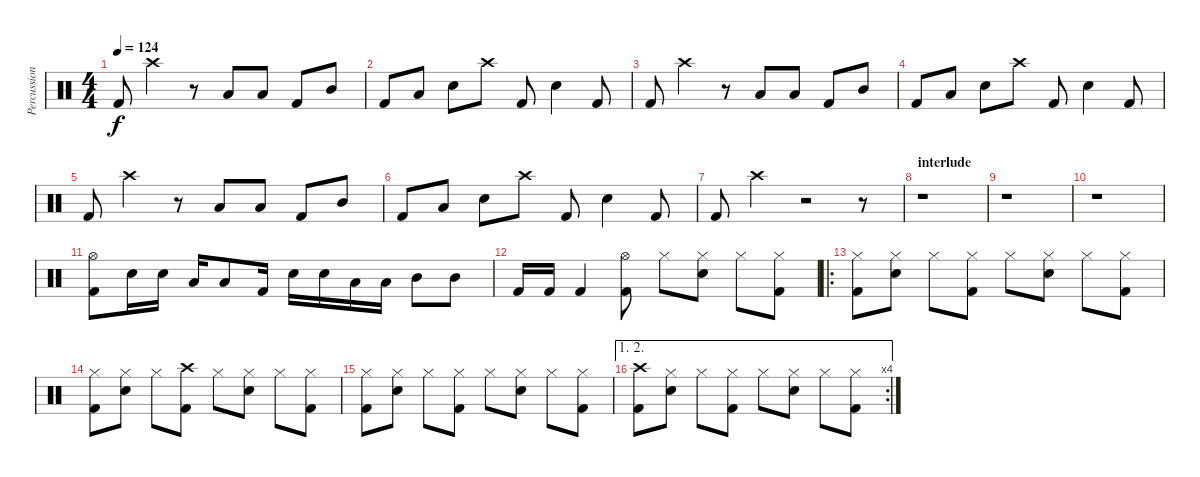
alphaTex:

\track ("Percussion" "Percussion") {instrument percussion}
\staff {score}
\articulation defaults
\ts (4 4)
\tempo 124
\clef neutral
\ks c "Kick (hit) 2".8{dy f} "Crash high (hit)".4
r.8 "Low Tom (hit)".8 "Low Tom (hit)".8 "Kick (hit) 2".8 "Mid Tom (hit)".8 |
"Kick (hit) 2".8 "Low Tom (hit)".8 "Electric Snare (hit)".8 "Crash high (hit)".8 "Kick (hit) 2".8 "Electric Snare (hit)".4 "Kick (hit) 2".8 |
"Kick (hit) 2".8 "Crash high (hit)".4 r.8 "Low Tom (hit)".8 "Low Tom (hit)".8 "Kick (hit) 2".8 "Mid Tom (hit)".8 |
"Kick (hit) 2".8 "Low Tom (hit)".8 "Electric Snare (hit)".8 "Crash high (hit)".8 "Kick (hit) 2".8 "Electric Snare (hit)".4 "Kick (hit) 2".8 |
"Kick (hit) 2".8 "Crash high (hit)".4 r.8 "Low Tom (hit)".8 "Low Tom (hit)".8 "Kick (hit) 2".8 "Mid Tom (hit)".8 |
"Kick (hit) 2".8 "Low Tom (hit)".8 "Electric Snare (hit)".8 "Crash high (hit)".8 "Kick (hit) 2".8 "Electric Snare (hit)".4 "Kick (hit) 2".8 |
"Kick (hit) 2".8 "Crash high (hit)".4 r.2 r.8 |
\section ("" "interlude")
r.1 |
r.1 |
r.1 |
("Hi-Hat (open)" "Kick (hit) 2").8 "Electric Snare (hit)".16 "Electric Snare (hit)".16 "Low Tom (hit)".16 "Low Tom (hit)".8 "Kick (hit) 2".16 "Electric Snare (hit)".16 "Electric Snare (hit)".16 "Low Tom (hit)".16 "Low Tom (hit)".16 "Mid Tom (hit)".8 "Mid Tom (hit)".8 |
"Kick (hit) 2".16 "Kick (hit) 2".16 "Kick (hit) 2".4 ("Hi-Hat (open)" "Kick (hit) 2").8 "Hi-Hat (closed)".8 ("Hi-Hat (closed)" "Electric Snare (hit)").8 "Hi-Hat (closed)".8 ("Hi-Hat (closed)" "Kick (hit) 2").8 |
\ro
("Hi-Hat (closed)" "Kick (hit) 2").8 ("Hi-Hat (closed)" "Electric Snare (hit)").8 "Hi-Hat (closed)".8 ("Hi-Hat (closed)" "Kick (hit) 2").8 "Hi-Hat (closed)".8 ("Hi-Hat (closed)" "Electric Snare (hit)").8 "Hi-Hat (closed)".8 ("Hi-Hat (closed)" "Kick (hit) 2").8 |
("Hi-Hat (closed)" "Kick (hit) 2").8 ("Hi-Hat (closed)" "Electric Snare (hit)").8 "Hi-Hat (closed)".8 ("Crash high (hit)" "Kick (hit) 2").8 "Hi-Hat (closed)".8 ("Hi-Hat (closed)" "Electric Snare (hit)").8 "Hi-Hat (closed)".8 ("Hi-Hat (closed)" "Kick (hit) 2").8 |
("Hi-Hat (closed)" "Kick (hit) 2").8 ("Hi-Hat (closed)" "Electric Snare (hit)").8 "Hi-Hat (closed)".8 ("Hi-Hat (closed)" "Kick (hit) 2").8 "Hi-Hat (closed)".8 ("Hi-Hat (closed)" "Electric Snare (hit)").8 "Hi-Hat (closed)".8 ("Hi-Hat (closed)" "Kick (hit) 2").8 |
\ae (1 2)
\rc 4
("Crash high (hit)" "Kick (hit) 2").8 ("Hi-Hat (closed)" "Electric Snare (hit)").8 "Hi-Hat (closed)".8 ("Hi-Hat (closed)" "Kick (hit) 2").8 "Hi-Hat (closed)".8 ("Hi-Hat (closed)" "Electric Snare (hit)").8 "Hi-Hat (closed)".8 ("Hi-Hat (closed)" "Kick (hit) 2").8
